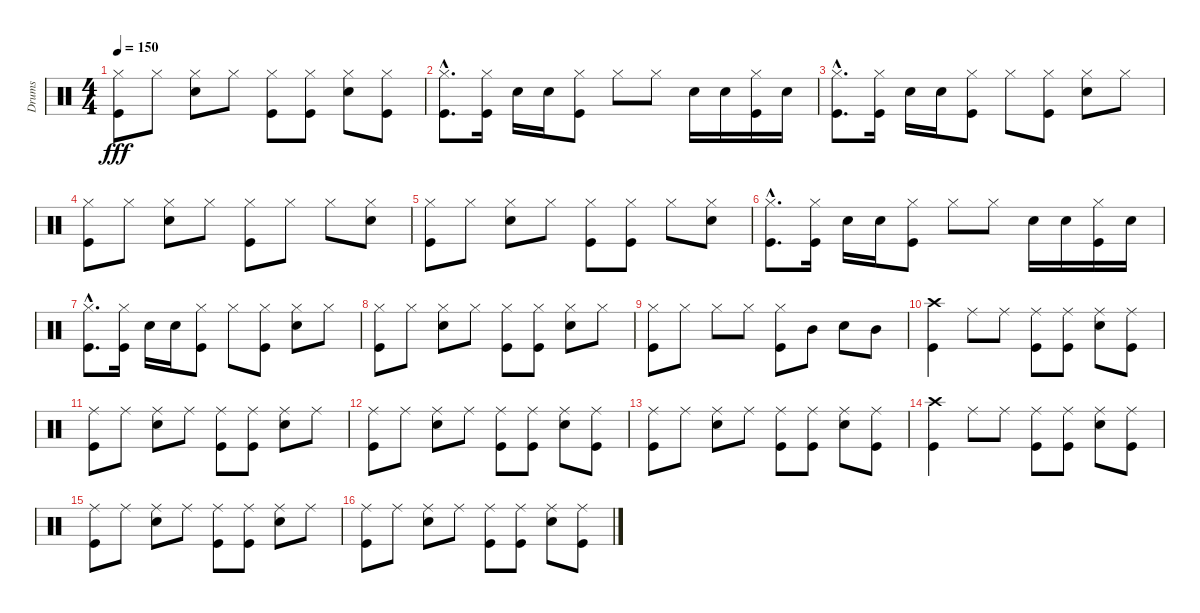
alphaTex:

\track ("Drums" "Drums") {instrument percussion}
\staff {score}
\articulation defaults
\ts (4 4)
\tempo 150
\clef neutral
\ks c
("Hi-Hat (closed)" "Kick (hit)").8{dy fff} "Hi-Hat (closed)".8 ("Hi-Hat (closed)" "Snare (hit) 2").8 "Hi-Hat (closed)".8 ("Hi-Hat (closed)" "Kick (hit)").8 ("Hi-Hat (closed)" "Kick (hit)").8 ("Hi-Hat (closed)" "Snare (hit) 2").8 ("Hi-Hat (closed)" "Kick (hit)").8 |
("Hi-Hat (closed)"{hac} "Kick (hit)"{hac}).8{d} ("Hi-Hat (closed)" "Kick (hit)").16 "Snare (hit) 2".16 "Snare (hit) 2".16 ("Hi-Hat (closed)" "Kick (hit)").8 "Hi-Hat (closed)".8 "Hi-Hat (closed)".8 "Snare (hit) 2".16 "Snare (hit) 2".16 ("Hi-Hat (closed)" "Kick (hit)").16 "Snare (hit) 2".16 |
("Hi-Hat (closed)"{hac} "Kick (hit)"{hac}).8{d} ("Hi-Hat (closed)" "Kick (hit)").16 "Snare (hit) 2".16 "Snare (hit) 2".16 ("Hi-Hat (closed)" "Kick (hit)").8 "Hi-Hat (closed)".8 ("Hi-Hat (closed)" "Kick (hit)").8 ("Hi-Hat (closed)" "Snare (hit) 2").8 "Hi-Hat (closed)".8 |
("Hi-Hat (closed)" "Kick (hit)").8 "Hi-Hat (closed)".8 ("Hi-Hat (closed)" "Snare (hit) 2").8 "Hi-Hat (closed)".8 ("Hi-Hat (closed)" "Kick (hit)").8 "Hi-Hat (closed)".8 "Hi-Hat (closed)".8 ("Hi-Hat (closed)" "Snare (hit) 2").8 |
("Hi-Hat (closed)" "Kick (hit)").8 "Hi-Hat (closed)".8 ("Hi-Hat (closed)" "Snare (hit) 2").8 "Hi-Hat (closed)".8 ("Hi-Hat (closed)" "Kick (hit)").8 ("Hi-Hat (closed)" "Kick (hit)").8 "Hi-Hat (closed)".8 ("Hi-Hat (closed)" "Snare (hit) 2").8 |
("Hi-Hat (closed)"{hac} "Kick (hit)"{hac}).8{d} ("Hi-Hat (closed)" "Kick (hit)").16 "Snare (hit) 2".16 "Snare (hit) 2".16 ("Hi-Hat (closed)" "Kick (hit)").8 "Hi-Hat (closed)".8 "Hi-Hat (closed)".8 "Snare (hit) 2".16 "Snare (hit) 2".16 ("Hi-Hat (closed)" "Kick (hit)").16 "Snare (hit) 2".16 |
("Hi-Hat (closed)"{hac} "Kick (hit)"{hac}).8{d} ("Hi-Hat (closed)" "Kick (hit)").16 "Snare (hit) 2".16 "Snare (hit) 2".16 ("Hi-Hat (closed)" "Kick (hit)").8 "Hi-Hat (closed)".8 ("Hi-Hat (closed)" "Kick (hit)").8 ("Hi-Hat (closed)" "Snare (hit) 2").8 "Hi-Hat (closed)".8 |
("Hi-Hat (closed)" "Kick (hit)").8 "Hi-Hat (closed)".8 ("Hi-Hat (closed)" "Snare (hit) 2").8 "Hi-Hat (closed)".8 ("Hi-Hat (closed)" "Kick (hit)").8 ("Hi-Hat (closed)" "Kick (hit)").8 ("Hi-Hat (closed)" "Snare (hit) 2").8 "Hi-Hat (closed)".8 |
("Hi-Hat (closed)" "Kick (hit)").8 "Hi-Hat (closed)".8 "Hi-Hat (closed)".8 "Hi-Hat (closed)".8 ("Hi-Hat (closed)" "Kick (hit)").8 "Mid Tom (hit)".8 "Snare (hit) 2".8 "Mid Tom (hit)".8 |
("Crash high (hit)" "Kick (hit)").4 "Ride (middle)".8 "Ride (middle)".8 ("Ride (middle)" "Kick (hit)").8 ("Ride (middle)" "Kick (hit)").8 ("Ride (middle)" "Snare (hit) 2").8 ("Ride (middle)" "Kick (hit)").8 |
("Ride (middle)" "Kick (hit)").8 "Ride (middle)".8 ("Ride (middle)" "Snare (hit) 2").8 "Ride (middle)".8 ("Ride (middle)" "Kick (hit)").8 ("Ride (middle)" "Kick (hit)").8 ("Ride (middle)" "Snare (hit) 2").8 "Ride (middle)".8 |
("Ride (middle)" "Kick (hit)").8 "Ride (middle)".8 ("Ride (middle)" "Snare (hit) 2").8 "Ride (middle)".8 ("Ride (middle)" "Kick (hit)").8 ("Ride (middle)" "Kick (hit)").8 ("Ride (middle)" "Snare (hit) 2").8 ("Ride (middle)" "Kick (hit)").8 |
("Ride (middle)" "Kick (hit)").8 "Ride (middle)".8 ("Ride (middle)" "Snare (hit) 2").8 "Ride (middle)".8 ("Ride (middle)" "Kick (hit)").8 ("Ride (middle)" "Kick (hit)").8 ("Ride (middle)" "Snare (hit) 2").8 ("Ride (middle)" "Kick (hit)").8 |
("Crash high (hit)" "Kick (hit)").4 "Ride (middle)".8 "Ride (middle)".8 ("Ride (middle)" "Kick (hit)").8 ("Ride (middle)" "Kick (hit)").8 ("Ride (middle)" "Snare (hit) 2").8 ("Ride (middle)" "Kick (hit)").8 |
("Ride (middle)" "Kick (hit)").8 "Ride (middle)".8 ("Ride (middle)" "Snare (hit) 2").8 "Ride (middle)".8 ("Ride (middle)" "Kick (hit)").8 ("Ride (middle)" "Kick (hit)").8 ("Ride (middle)" "Snare (hit) 2").8 "Ride (middle)".8 |
("Ride (middle)" "Kick (hit)").8 "Ride (middle)".8 ("Ride (middle)" "Snare (hit) 2").8 "Ride (middle)".8 ("Ride (middle)" "Kick (hit)").8 ("Ride (middle)" "Kick (hit)").8 ("Ride (middle)" "Snare (hit) 2").8 ("Ride (middle)" "Kick (hit)").8
